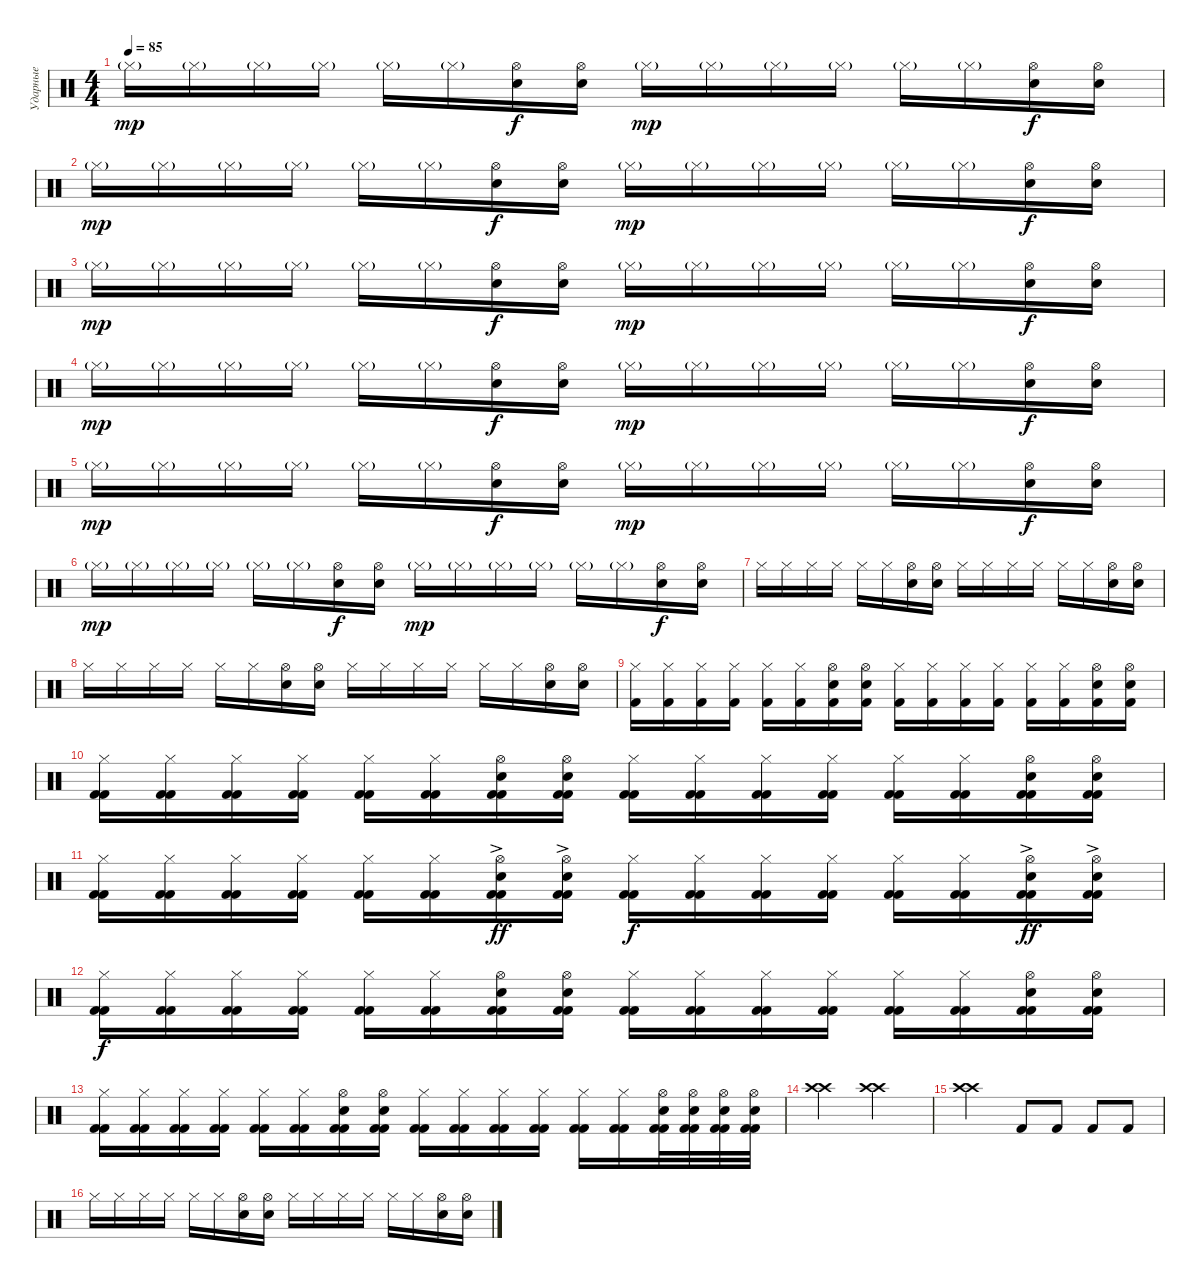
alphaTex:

\track ("Ударные" "Ударные") {instrument percussion}
\staff {score}
\articulation defaults
\ts (4 4)
\tempo 85
\clef neutral
\ks c "Hi-Hat (closed)"{g}.16{dy mp} "Hi-Hat (closed)"{g}.16 "Hi-Hat (closed)"{g}.16 "Hi-Hat (closed)"{g}.16 "Hi-Hat (closed)"{g}.16 "Hi-Hat (closed)"{g}.16
("Hi-Hat (open)" "Electric Snare (hit)").16{dy f} ("Hi-Hat (open)" "Electric Snare (hit)").16 "Hi-Hat (closed)"{g}.16{dy mp} "Hi-Hat (closed)"{g}.16 "Hi-Hat (closed)"{g}.16 "Hi-Hat (closed)"{g}.16 "Hi-Hat (closed)"{g}.16 "Hi-Hat (closed)"{g}.16 ("Hi-Hat (open)" "Electric Snare (hit)").16{dy f} ("Hi-Hat (open)" "Electric Snare (hit)").16 |
"Hi-Hat (closed)"{g}.16{dy mp} "Hi-Hat (closed)"{g}.16 "Hi-Hat (closed)"{g}.16 "Hi-Hat (closed)"{g}.16 "Hi-Hat (closed)"{g}.16 "Hi-Hat (closed)"{g}.16 ("Hi-Hat (open)" "Electric Snare (hit)").16{dy f} ("Hi-Hat (open)" "Electric Snare (hit)").16 "Hi-Hat (closed)"{g}.16{dy mp} "Hi-Hat (closed)"{g}.16 "Hi-Hat (closed)"{g}.16 "Hi-Hat (closed)"{g}.16 "Hi-Hat (closed)"{g}.16 "Hi-Hat (closed)"{g}.16 ("Hi-Hat (open)" "Electric Snare (hit)").16{dy f} ("Hi-Hat (open)" "Electric Snare (hit)").16 |
"Hi-Hat (closed)"{g}.16{dy mp} "Hi-Hat (closed)"{g}.16 "Hi-Hat (closed)"{g}.16 "Hi-Hat (closed)"{g}.16 "Hi-Hat (closed)"{g}.16 "Hi-Hat (closed)"{g}.16 ("Hi-Hat (open)" "Electric Snare (hit)").16{dy f} ("Hi-Hat (open)" "Electric Snare (hit)").16 "Hi-Hat (closed)"{g}.16{dy mp} "Hi-Hat (closed)"{g}.16 "Hi-Hat (closed)"{g}.16 "Hi-Hat (closed)"{g}.16 "Hi-Hat (closed)"{g}.16 "Hi-Hat (closed)"{g}.16 ("Hi-Hat (open)" "Electric Snare (hit)").16{dy f} ("Hi-Hat (open)" "Electric Snare (hit)").16 |
"Hi-Hat (closed)"{g}.16{dy mp} "Hi-Hat (closed)"{g}.16 "Hi-Hat (closed)"{g}.16 "Hi-Hat (closed)"{g}.16 "Hi-Hat (closed)"{g}.16 "Hi-Hat (closed)"{g}.16 ("Hi-Hat (open)" "Electric Snare (hit)").16{dy f} ("Hi-Hat (open)" "Electric Snare (hit)").16 "Hi-Hat (closed)"{g}.16{dy mp} "Hi-Hat (closed)"{g}.16 "Hi-Hat (closed)"{g}.16 "Hi-Hat (closed)"{g}.16 "Hi-Hat (closed)"{g}.16 "Hi-Hat (closed)"{g}.16 ("Hi-Hat (open)" "Electric Snare (hit)").16{dy f} ("Hi-Hat (open)" "Electric Snare (hit)").16 |
"Hi-Hat (closed)"{g}.16{dy mp} "Hi-Hat (closed)"{g}.16 "Hi-Hat (closed)"{g}.16 "Hi-Hat (closed)"{g}.16 "Hi-Hat (closed)"{g}.16 "Hi-Hat (closed)"{g}.16 ("Hi-Hat (open)" "Electric Snare (hit)").16{dy f} ("Hi-Hat (open)" "Electric Snare (hit)").16 "Hi-Hat (closed)"{g}.16{dy mp} "Hi-Hat (closed)"{g}.16 "Hi-Hat (closed)"{g}.16 "Hi-Hat (closed)"{g}.16 "Hi-Hat (closed)"{g}.16 "Hi-Hat (closed)"{g}.16 ("Hi-Hat (open)" "Electric Snare (hit)").16{dy f} ("Hi-Hat (open)" "Electric Snare (hit)").16 |
"Hi-Hat (closed)"{g}.16{dy mp} "Hi-Hat (closed)"{g}.16 "Hi-Hat (closed)"{g}.16 "Hi-Hat (closed)"{g}.16 "Hi-Hat (closed)"{g}.16 "Hi-Hat (closed)"{g}.16 ("Hi-Hat (open)" "Electric Snare (hit)").16{dy f} ("Hi-Hat (open)" "Electric Snare (hit)").16 "Hi-Hat (closed)"{g}.16{dy mp} "Hi-Hat (closed)"{g}.16 "Hi-Hat (closed)"{g}.16 "Hi-Hat (closed)"{g}.16 "Hi-Hat (closed)"{g}.16 "Hi-Hat (closed)"{g}.16 ("Hi-Hat (open)" "Electric Snare (hit)").16{dy f} ("Hi-Hat (open)" "Electric Snare (hit)").16 |
"Hi-Hat (closed)".16 "Hi-Hat (closed)".16 "Hi-Hat (closed)".16 "Hi-Hat (closed)".16 "Hi-Hat (closed)".16 "Hi-Hat (closed)".16 ("Hi-Hat (open)" "Electric Snare (hit)").16 ("Hi-Hat (open)" "Electric Snare (hit)").16 "Hi-Hat (closed)".16 "Hi-Hat (closed)".16 "Hi-Hat (closed)".16 "Hi-Hat (closed)".16 "Hi-Hat (closed)".16 "Hi-Hat (closed)".16 ("Hi-Hat (open)" "Electric Snare (hit)").16 ("Hi-Hat (open)" "Electric Snare (hit)").16 |
"Hi-Hat (closed)".16 "Hi-Hat (closed)".16 "Hi-Hat (closed)".16 "Hi-Hat (closed)".16 "Hi-Hat (closed)".16 "Hi-Hat (closed)".16 ("Hi-Hat (open)" "Electric Snare (hit)").16 ("Hi-Hat (open)" "Electric Snare (hit)").16 "Hi-Hat (closed)".16 "Hi-Hat (closed)".16 "Hi-Hat (closed)".16 "Hi-Hat (closed)".16 "Hi-Hat (closed)".16 "Hi-Hat (closed)".16 ("Hi-Hat (open)" "Electric Snare (hit)").16 ("Hi-Hat (open)" "Electric Snare (hit)").16 |
("Hi-Hat (closed)" "Kick (hit) 2").16 ("Hi-Hat (closed)" "Kick (hit) 2").16 ("Hi-Hat (closed)" "Kick (hit) 2").16 ("Hi-Hat (closed)" "Kick (hit) 2").16 ("Hi-Hat (closed)" "Kick (hit) 2").16 ("Hi-Hat (closed)" "Kick (hit) 2").16 ("Hi-Hat (open)" "Electric Snare (hit)" "Kick (hit) 2").16 ("Hi-Hat (open)" "Electric Snare (hit)" "Kick (hit) 2").16 ("Hi-Hat (closed)" "Kick (hit) 2").16 ("Hi-Hat (closed)" "Kick (hit) 2").16 ("Hi-Hat (closed)" "Kick (hit) 2").16 ("Hi-Hat (closed)" "Kick (hit) 2").16 ("Hi-Hat (closed)" "Kick (hit) 2").16 ("Hi-Hat (closed)" "Kick (hit) 2").16 ("Hi-Hat (open)" "Electric Snare (hit)" "Kick (hit) 2").16 ("Hi-Hat (open)" "Electric Snare (hit)" "Kick (hit) 2").16 |
("Hi-Hat (closed)" "Kick (hit) 2" "Kick (hit) 2").16 ("Hi-Hat (closed)" "Kick (hit) 2" "Kick (hit) 2").16 ("Hi-Hat (closed)" "Kick (hit) 2" "Kick (hit) 2").16 ("Hi-Hat (closed)" "Kick (hit) 2" "Kick (hit) 2").16 ("Hi-Hat (closed)" "Kick (hit) 2" "Kick (hit) 2").16 ("Hi-Hat (closed)" "Kick (hit) 2" "Kick (hit) 2").16 ("Hi-Hat (open)" "Electric Snare (hit)" "Kick (hit) 2" "Kick (hit) 2").16 ("Hi-Hat (open)" "Electric Snare (hit)" "Kick (hit) 2" "Kick (hit) 2").16 ("Hi-Hat (closed)" "Kick (hit) 2" "Kick (hit) 2").16 ("Hi-Hat (closed)" "Kick (hit) 2" "Kick (hit) 2").16 ("Hi-Hat (closed)" "Kick (hit) 2" "Kick (hit) 2").16 ("Hi-Hat (closed)" "Kick (hit) 2" "Kick (hit) 2").16 ("Hi-Hat (closed)" "Kick (hit) 2" "Kick (hit) 2").16 ("Hi-Hat (closed)" "Kick (hit) 2" "Kick (hit) 2").16 ("Hi-Hat (open)" "Electric Snare (hit)" "Kick (hit) 2" "Kick (hit) 2").16 ("Hi-Hat (open)" "Electric Snare (hit)" "Kick (hit) 2" "Kick (hit) 2").16 |
("Hi-Hat (closed)" "Kick (hit) 2" "Kick (hit) 2").16 ("Hi-Hat (closed)" "Kick (hit) 2" "Kick (hit) 2").16 ("Hi-Hat (closed)" "Kick (hit) 2" "Kick (hit) 2").16 ("Hi-Hat (closed)" "Kick (hit) 2" "Kick (hit) 2").16 ("Hi-Hat (closed)" "Kick (hit) 2" "Kick (hit) 2").16 ("Hi-Hat (closed)" "Kick (hit) 2" "Kick (hit) 2").16 ("Hi-Hat (open)"{ac} "Electric Snare (hit)"{ac} "Kick (hit) 2" "Kick (hit) 2").16{dy ff} ("Hi-Hat (open)"{ac} "Electric Snare (hit)"{ac} "Kick (hit) 2" "Kick (hit) 2").16 ("Hi-Hat (closed)" "Kick (hit) 2" "Kick (hit) 2").16{dy f} ("Hi-Hat (closed)" "Kick (hit) 2" "Kick (hit) 2").16 ("Hi-Hat (closed)" "Kick (hit) 2" "Kick (hit) 2").16 ("Hi-Hat (closed)" "Kick (hit) 2" "Kick (hit) 2").16 ("Hi-Hat (closed)" "Kick (hit) 2" "Kick (hit) 2").16 ("Hi-Hat (closed)" "Kick (hit) 2" "Kick (hit) 2").16 ("Hi-Hat (open)"{ac} "Electric Snare (hit)"{ac} "Kick (hit) 2" "Kick (hit) 2").16{dy ff} ("Hi-Hat (open)"{ac} "Electric Snare (hit)"{ac} "Kick (hit) 2" "Kick (hit) 2").16 |
("Hi-Hat (closed)" "Kick (hit) 2" "Kick (hit) 2").16{dy f} ("Hi-Hat (closed)" "Kick (hit) 2" "Kick (hit) 2").16 ("Hi-Hat (closed)" "Kick (hit) 2" "Kick (hit) 2").16 ("Hi-Hat (closed)" "Kick (hit) 2" "Kick (hit) 2").16 ("Hi-Hat (closed)" "Kick (hit) 2" "Kick (hit) 2").16 ("Hi-Hat (closed)" "Kick (hit) 2" "Kick (hit) 2").16 ("Hi-Hat (open)" "Electric Snare (hit)" "Kick (hit) 2" "Kick (hit) 2").16 ("Hi-Hat (open)" "Electric Snare (hit)" "Kick (hit) 2" "Kick (hit) 2").16 ("Hi-Hat (closed)" "Kick (hit) 2" "Kick (hit) 2").16 ("Hi-Hat (closed)" "Kick (hit) 2" "Kick (hit) 2").16 ("Hi-Hat (closed)" "Kick (hit) 2" "Kick (hit) 2").16 ("Hi-Hat (closed)" "Kick (hit) 2" "Kick (hit) 2").16 ("Hi-Hat (closed)" "Kick (hit) 2" "Kick (hit) 2").16 ("Hi-Hat (closed)" "Kick (hit) 2" "Kick (hit) 2").16 ("Hi-Hat (open)" "Electric Snare (hit)" "Kick (hit) 2" "Kick (hit) 2").16 ("Hi-Hat (open)" "Electric Snare (hit)" "Kick (hit) 2" "Kick (hit) 2").16 |
("Hi-Hat (closed)" "Kick (hit) 2" "Kick (hit) 2").16 ("Hi-Hat (closed)" "Kick (hit) 2" "Kick (hit) 2").16 ("Hi-Hat (closed)" "Kick (hit) 2" "Kick (hit) 2").16 ("Hi-Hat (closed)" "Kick (hit) 2" "Kick (hit) 2").16 ("Hi-Hat (closed)" "Kick (hit) 2" "Kick (hit) 2").16 ("Hi-Hat (closed)" "Kick (hit) 2" "Kick (hit) 2").16 ("Hi-Hat (open)" "Electric Snare (hit)" "Kick (hit) 2" "Kick (hit) 2").16 ("Hi-Hat (open)" "Electric Snare (hit)" "Kick (hit) 2" "Kick (hit) 2").16 ("Hi-Hat (closed)" "Kick (hit) 2" "Kick (hit) 2").16 ("Hi-Hat (closed)" "Kick (hit) 2" "Kick (hit) 2").16 ("Hi-Hat (closed)" "Kick (hit) 2" "Kick (hit) 2").16 ("Hi-Hat (closed)" "Kick (hit) 2" "Kick (hit) 2").16 ("Hi-Hat (closed)" "Kick (hit) 2" "Kick (hit) 2").16 ("Hi-Hat (closed)" "Kick (hit) 2" "Kick (hit) 2").16 ("Hi-Hat (open)" "Electric Snare (hit)" "Kick (hit) 2" "Kick (hit) 2").32 ("Hi-Hat (open)" "Electric Snare (hit)" "Kick (hit) 2" "Kick (hit) 2").32 ("Hi-Hat (open)" "Electric Snare (hit)" "Kick (hit) 2" "Kick (hit) 2").32 ("Hi-Hat (open)" "Electric Snare (hit)" "Kick (hit) 2" "Kick (hit) 2").32 |
("Crash high (hit)" "Crash high (hit)").2 ("Crash high (hit)" "Crash high (hit)").2 |
("Crash high (hit)" "Crash high (hit)").2 "Kick (hit) 2".8 "Kick (hit) 2".8 "Kick (hit) 2".8 "Kick (hit) 2".8 |
"Hi-Hat (closed)".16 "Hi-Hat (closed)".16 "Hi-Hat (closed)".16 "Hi-Hat (closed)".16 "Hi-Hat (closed)".16 "Hi-Hat (closed)".16 ("Hi-Hat (open)" "Electric Snare (hit)").16 ("Hi-Hat (open)" "Electric Snare (hit)").16 "Hi-Hat (closed)".16 "Hi-Hat (closed)".16 "Hi-Hat (closed)".16 "Hi-Hat (closed)".16 "Hi-Hat (closed)".16 "Hi-Hat (closed)".16 ("Hi-Hat (open)" "Electric Snare (hit)").16 ("Hi-Hat (open)" "Electric Snare (hit)").16
